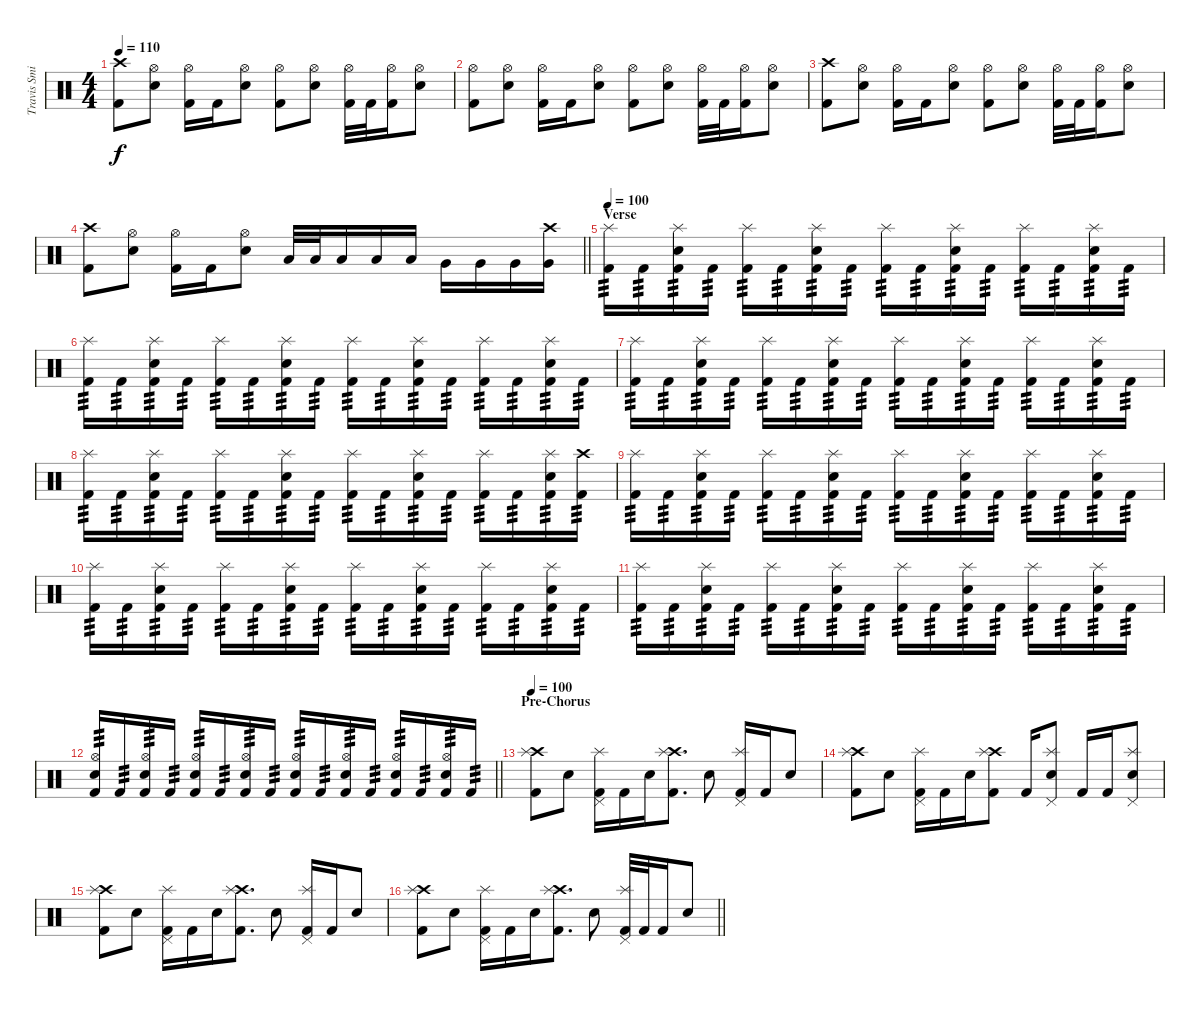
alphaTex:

\track ("Travis Smith" "Travis Smi") {instrument percussion}
\staff {score}
\articulation defaults
\ts (4 4)
\tempo 110
\clef neutral
\ks c
("Crash high (hit)" "Kick (hit) 2").8{dy f} ("Hi-Hat (open)" "Snare (hit) 2").8 ("Hi-Hat (open)" "Kick (hit) 2").16 "Kick (hit) 2".16 ("Hi-Hat (open)" "Snare (hit) 2").8 ("Hi-Hat (open)" "Kick (hit) 2").8 ("Hi-Hat (open)" "Snare (hit) 2").8 ("Hi-Hat (open)" "Kick (hit) 2").32 "Kick (hit) 2".32 ("Hi-Hat (open)" "Kick (hit) 2").16 ("Hi-Hat (open)" "Snare (hit) 2").8 |
("Hi-Hat (open)" "Kick (hit) 2").8 ("Hi-Hat (open)" "Snare (hit) 2").8 ("Hi-Hat (open)" "Kick (hit) 2").16 "Kick (hit) 2".16 ("Hi-Hat (open)" "Snare (hit) 2").8 ("Hi-Hat (open)" "Kick (hit) 2").8 ("Hi-Hat (open)" "Snare (hit) 2").8 ("Hi-Hat (open)" "Kick (hit) 2").32 "Kick (hit) 2".32 ("Hi-Hat (open)" "Kick (hit) 2").16 ("Hi-Hat (open)" "Snare (hit) 2").8 |
("Crash high (hit)" "Kick (hit) 2").8 ("Hi-Hat (open)" "Snare (hit) 2").8 ("Hi-Hat (open)" "Kick (hit) 2").16 "Kick (hit) 2".16 ("Hi-Hat (open)" "Snare (hit) 2").8 ("Hi-Hat (open)" "Kick (hit) 2").8 ("Hi-Hat (open)" "Snare (hit) 2").8 ("Hi-Hat (open)" "Kick (hit) 2").32 "Kick (hit) 2".32 ("Hi-Hat (open)" "Kick (hit) 2").16 ("Hi-Hat (open)" "Snare (hit) 2").8 |
\barLineRight lightlight
("Crash high (hit)" "Kick (hit) 2").8 ("Hi-Hat (open)" "Snare (hit) 2").8 ("Hi-Hat (open)" "Kick (hit) 2").16 "Kick (hit) 2".16 ("Hi-Hat (open)" "Snare (hit) 2").8 "Low Tom (hit)".32 "Low Tom (hit)".32 "Low Tom (hit)".16 "Low Tom (hit)".16 "Low Tom (hit)".16 "Very Low Tom (hit)".16 "Very Low Tom (hit)".16 "Very Low Tom (hit)".16 ("Crash high (hit)" "Very Low Tom (hit)").16 |
\section ("" "Verse")
\tempo 100
("Splash (hit)" "Kick (hit) 2").16{tp 3} "Kick (hit) 2".16{tp 3} ("Splash (hit)" "Snare (hit) 2" "Kick (hit) 2").16{tp 3} "Kick (hit) 2".16{tp 3} ("Splash (hit)" "Kick (hit) 2").16{tp 3} "Kick (hit) 2".16{tp 3} ("Splash (hit)" "Snare (hit) 2" "Kick (hit) 2").16{tp 3} "Kick (hit) 2".16{tp 3} ("Splash (hit)" "Kick (hit) 2").16{tp 3} "Kick (hit) 2".16{tp 3} ("Splash (hit)" "Snare (hit) 2" "Kick (hit) 2").16{tp 3} "Kick (hit) 2".16{tp 3} ("Splash (hit)" "Kick (hit) 2").16{tp 3} "Kick (hit) 2".16{tp 3} ("Splash (hit)" "Snare (hit) 2" "Kick (hit) 2").16{tp 3} "Kick (hit) 2".16{tp 3} |
("Splash (hit)" "Kick (hit) 2").16{tp 3} "Kick (hit) 2".16{tp 3} ("Splash (hit)" "Snare (hit) 2" "Kick (hit) 2").16{tp 3} "Kick (hit) 2".16{tp 3} ("Splash (hit)" "Kick (hit) 2").16{tp 3} "Kick (hit) 2".16{tp 3} ("Splash (hit)" "Snare (hit) 2" "Kick (hit) 2").16{tp 3} "Kick (hit) 2".16{tp 3} ("Splash (hit)" "Kick (hit) 2").16{tp 3} "Kick (hit) 2".16{tp 3} ("Splash (hit)" "Snare (hit) 2" "Kick (hit) 2").16{tp 3} "Kick (hit) 2".16{tp 3} ("Splash (hit)" "Kick (hit) 2").16{tp 3} "Kick (hit) 2".16{tp 3} ("Splash (hit)" "Snare (hit) 2" "Kick (hit) 2").16{tp 3} "Kick (hit) 2".16{tp 3} |
("Splash (hit)" "Kick (hit) 2").16{tp 3} "Kick (hit) 2".16{tp 3} ("Splash (hit)" "Snare (hit) 2" "Kick (hit) 2").16{tp 3} "Kick (hit) 2".16{tp 3} ("Splash (hit)" "Kick (hit) 2").16{tp 3} "Kick (hit) 2".16{tp 3} ("Splash (hit)" "Snare (hit) 2" "Kick (hit) 2").16{tp 3} "Kick (hit) 2".16{tp 3} ("Splash (hit)" "Kick (hit) 2").16{tp 3} "Kick (hit) 2".16{tp 3} ("Splash (hit)" "Snare (hit) 2" "Kick (hit) 2").16{tp 3} "Kick (hit) 2".16{tp 3} ("Splash (hit)" "Kick (hit) 2").16{tp 3} "Kick (hit) 2".16{tp 3} ("Splash (hit)" "Snare (hit) 2" "Kick (hit) 2").16{tp 3} "Kick (hit) 2".16{tp 3} |
("Splash (hit)" "Kick (hit) 2").16{tp 3} "Kick (hit) 2".16{tp 3} ("Splash (hit)" "Snare (hit) 2" "Kick (hit) 2").16{tp 3} "Kick (hit) 2".16{tp 3} ("Splash (hit)" "Kick (hit) 2").16{tp 3} "Kick (hit) 2".16{tp 3} ("Splash (hit)" "Snare (hit) 2" "Kick (hit) 2").16{tp 3} "Kick (hit) 2".16{tp 3} ("Splash (hit)" "Kick (hit) 2").16{tp 3} "Kick (hit) 2".16{tp 3} ("Splash (hit)" "Snare (hit) 2" "Kick (hit) 2").16{tp 3} "Kick (hit) 2".16{tp 3} ("Splash (hit)" "Kick (hit) 2").16{tp 3} "Kick (hit) 2".16{tp 3} ("Splash (hit)" "Snare (hit) 2" "Kick (hit) 2").16{tp 3} ("Crash high (hit)" "Kick (hit) 2").16{tp 3} |
("Splash (hit)" "Kick (hit) 2").16{tp 3} "Kick (hit) 2".16{tp 3} ("Splash (hit)" "Snare (hit) 2" "Kick (hit) 2").16{tp 3} "Kick (hit) 2".16{tp 3} ("Splash (hit)" "Kick (hit) 2").16{tp 3} "Kick (hit) 2".16{tp 3} ("Splash (hit)" "Snare (hit) 2" "Kick (hit) 2").16{tp 3} "Kick (hit) 2".16{tp 3} ("Splash (hit)" "Kick (hit) 2").16{tp 3} "Kick (hit) 2".16{tp 3} ("Splash (hit)" "Snare (hit) 2" "Kick (hit) 2").16{tp 3} "Kick (hit) 2".16{tp 3} ("Splash (hit)" "Kick (hit) 2").16{tp 3} "Kick (hit) 2".16{tp 3} ("Splash (hit)" "Snare (hit) 2" "Kick (hit) 2").16{tp 3} "Kick (hit) 2".16{tp 3} |
("Splash (hit)" "Kick (hit) 2").16{tp 3} "Kick (hit) 2".16{tp 3} ("Splash (hit)" "Snare (hit) 2" "Kick (hit) 2").16{tp 3} "Kick (hit) 2".16{tp 3} ("Splash (hit)" "Kick (hit) 2").16{tp 3} "Kick (hit) 2".16{tp 3} ("Splash (hit)" "Snare (hit) 2" "Kick (hit) 2").16{tp 3} "Kick (hit) 2".16{tp 3} ("Splash (hit)" "Kick (hit) 2").16{tp 3} "Kick (hit) 2".16{tp 3} ("Splash (hit)" "Snare (hit) 2" "Kick (hit) 2").16{tp 3} "Kick (hit) 2".16{tp 3} ("Splash (hit)" "Kick (hit) 2").16{tp 3} "Kick (hit) 2".16{tp 3} ("Splash (hit)" "Snare (hit) 2" "Kick (hit) 2").16{tp 3} "Kick (hit) 2".16{tp 3} |
("Splash (hit)" "Kick (hit) 2").16{tp 3} "Kick (hit) 2".16{tp 3} ("Splash (hit)" "Snare (hit) 2" "Kick (hit) 2").16{tp 3} "Kick (hit) 2".16{tp 3} ("Splash (hit)" "Kick (hit) 2").16{tp 3} "Kick (hit) 2".16{tp 3} ("Splash (hit)" "Snare (hit) 2" "Kick (hit) 2").16{tp 3} "Kick (hit) 2".16{tp 3} ("Splash (hit)" "Kick (hit) 2").16{tp 3} "Kick (hit) 2".16{tp 3} ("Splash (hit)" "Snare (hit) 2" "Kick (hit) 2").16{tp 3} "Kick (hit) 2".16{tp 3} ("Splash (hit)" "Kick (hit) 2").16{tp 3} "Kick (hit) 2".16{tp 3} ("Splash (hit)" "Snare (hit) 2" "Kick (hit) 2").16{tp 3} "Kick (hit) 2".16{tp 3} |
\barLineRight lightlight
("Hi-Hat (open)" "Snare (hit) 2" "Kick (hit) 2").16{tp 3} "Kick (hit) 2".16{tp 3} ("Hi-Hat (open)" "Snare (hit) 2" "Kick (hit) 2").16{tp 3} "Kick (hit) 2".16{tp 3} ("Hi-Hat (open)" "Snare (hit) 2" "Kick (hit) 2").16{tp 3} "Kick (hit) 2".16{tp 3} ("Hi-Hat (open)" "Snare (hit) 2" "Kick (hit) 2").16{tp 3} "Kick (hit) 2".16{tp 3} ("Hi-Hat (open)" "Snare (hit) 2" "Kick (hit) 2").16{tp 3} "Kick (hit) 2".16{tp 3} ("Hi-Hat (open)" "Snare (hit) 2" "Kick (hit) 2").16{tp 3} "Kick (hit) 2".16{tp 3} ("Hi-Hat (open)" "Snare (hit) 2" "Kick (hit) 2").16{tp 3} "Kick (hit) 2".16{tp 3} ("Hi-Hat (open)" "Snare (hit) 2" "Kick (hit) 2").16{tp 3} "Kick (hit) 2".16{tp 3} |
\section ("" "Pre-Chorus")
\tempo 100
("Crash high (hit)" "Splash (hit)" "Kick (hit) 2").8 "Snare (hit) 2".8 ("Pedal Hi-Hat (hit)" "Splash (hit)" "Kick (hit) 2").16 "Kick (hit) 2".16 "Snare (hit) 2".16 ("Crash high (hit)" "Splash (hit)" "Kick (hit) 2").8{d} "Snare (hit) 2".8 ("Pedal Hi-Hat (hit)" "Splash (hit)" "Kick (hit) 2").16 "Kick (hit) 2".16 "Snare (hit) 2".8 |
("Crash high (hit)" "Splash (hit)" "Kick (hit) 2").8 "Snare (hit) 2".8 ("Pedal Hi-Hat (hit)" "Splash (hit)" "Kick (hit) 2").16 "Kick (hit) 2".16 "Snare (hit) 2".16 ("Crash high (hit)" "Splash (hit)" "Kick (hit) 2").8 "Kick (hit) 2".16 ("Pedal Hi-Hat (hit)" "Splash (hit)" "Snare (hit) 2").8 "Kick (hit) 2".16 "Kick (hit) 2".16 ("Pedal Hi-Hat (hit)" "Splash (hit)" "Snare (hit) 2").8 |
("Crash high (hit)" "Splash (hit)" "Kick (hit) 2").8 "Snare (hit) 2".8 ("Pedal Hi-Hat (hit)" "Splash (hit)" "Kick (hit) 2").16 "Kick (hit) 2".16 "Snare (hit) 2".16 ("Crash high (hit)" "Splash (hit)" "Kick (hit) 2").8{d} "Snare (hit) 2".8 ("Pedal Hi-Hat (hit)" "Splash (hit)" "Kick (hit) 2").16 "Kick (hit) 2".16 "Snare (hit) 2".8 |
\barLineRight lightlight
("Crash high (hit)" "Splash (hit)" "Kick (hit) 2").8 "Snare (hit) 2".8 ("Pedal Hi-Hat (hit)" "Splash (hit)" "Kick (hit) 2").16 "Kick (hit) 2".16 "Snare (hit) 2".16 ("Crash high (hit)" "Splash (hit)" "Kick (hit) 2").8{d} "Snare (hit) 2".8 ("Pedal Hi-Hat (hit)" "Splash (hit)" "Kick (hit) 2").32 "Kick (hit) 2".32 "Kick (hit) 2".16 "Snare (hit) 2".8
